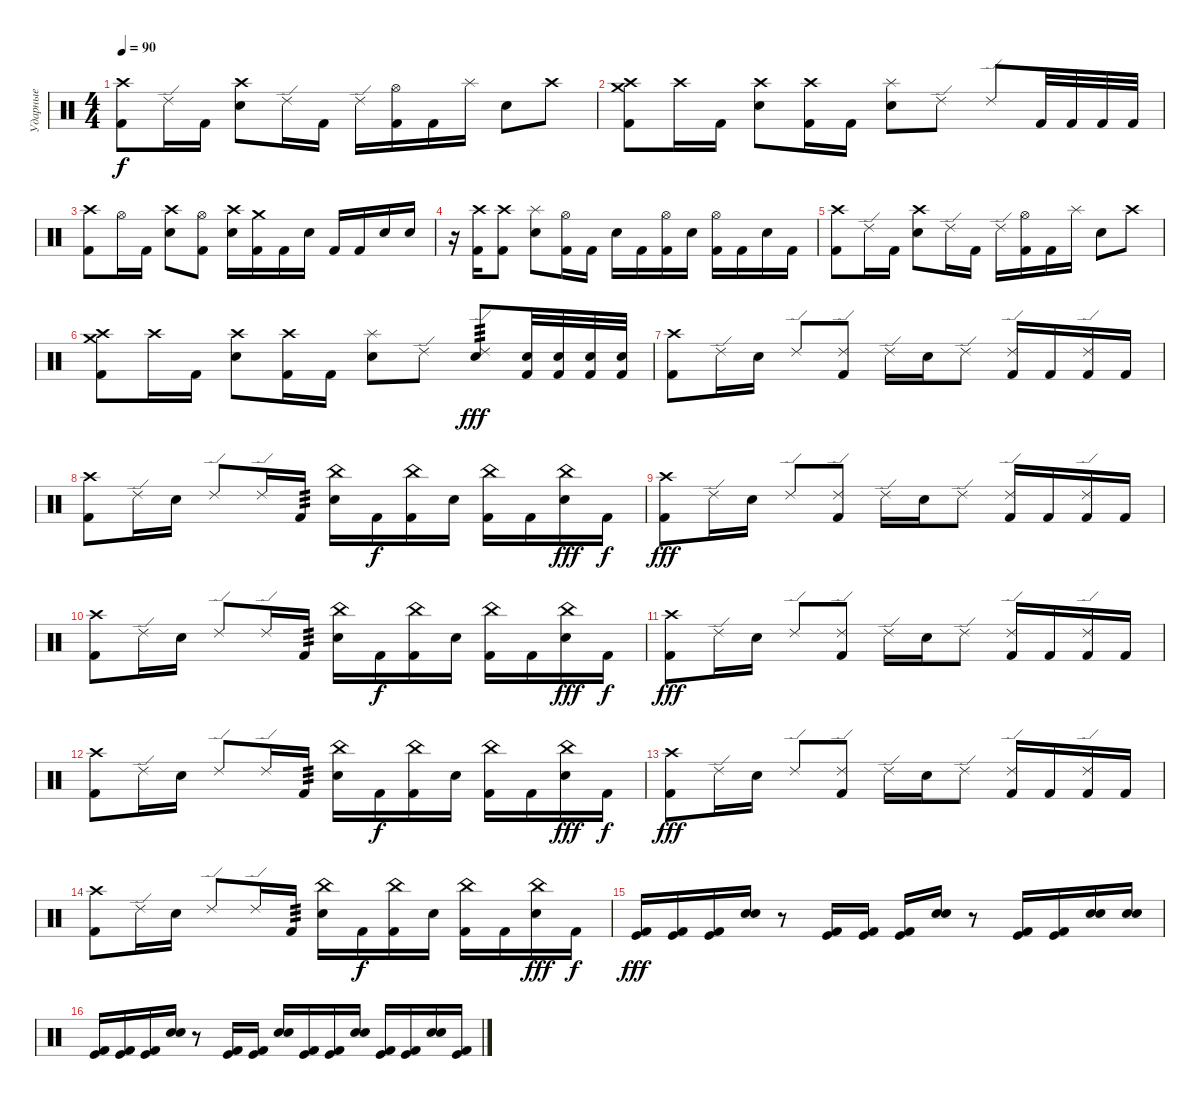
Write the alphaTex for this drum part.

\track ("Ударные" "Ударные") {instrument percussion}
\staff {score}
\articulation defaults
\ts (4 4)
\tempo 90
\clef neutral
\ks c
("Kick (hit) 2" "Crash high (hit)").8{dy f} "Ride (edge) 2".16 "Kick (hit) 2".16 ("Electric Snare (hit)" "Crash high (hit)").8 "Ride (edge) 2".16 "Kick (hit) 2".16 "Ride (edge) 2".16 ("Kick (hit) 2" "Hi-Hat (open)").16 "Kick (hit) 2".16 "Splash (hit)".16 "Electric Snare (hit)".8 "Crash high (hit)".8 |
("Kick (hit) 2" "Crash medium (hit)" "Crash high (hit)").8 "Crash high (hit)".16 "Kick (hit) 2".16 ("Electric Snare (hit)" "Crash high (hit)").8 ("Kick (hit) 2" "Crash high (hit)").16 "Kick (hit) 2".16 ("Electric Snare (hit)" "Splash (hit)").8 "Ride (edge) 2".8 "Ride (edge) 2".8 "Kick (hit) 2".32 "Kick (hit) 2".32 "Kick (hit) 2".32 "Kick (hit) 2".32 |
("Kick (hit) 2" "Crash high (hit)").8 "Hi-Hat (open)".16 "Kick (hit) 2".16 ("Electric Snare (hit)" "Crash high (hit)").8 ("Kick (hit) 2" "Hi-Hat (open)").8 ("Electric Snare (hit)" "Crash high (hit)").16 ("Kick (hit) 2" "Crash medium (hit)").16 "Kick (hit) 2".16 "Electric Snare (hit)".16 "Kick (hit) 2".16 "Kick (hit) 2".16 "Electric Snare (hit)".16 "Electric Snare (hit)".16 |
r.16 ("Kick (hit) 2" "Crash high (hit)").16 ("Kick (hit) 2" "Crash high (hit)").8 ("Electric Snare (hit)" "Splash (hit)").8 ("Kick (hit) 2" "Hi-Hat (open)").16 "Kick (hit) 2".16 "Electric Snare (hit)".16 "Kick (hit) 2".16 ("Kick (hit) 2" "Hi-Hat (open)").16 "Electric Snare (hit)".16 ("Kick (hit) 2" "Hi-Hat (open)").16 "Kick (hit) 2".16 "Electric Snare (hit)".16 "Kick (hit) 2".16 |
("Kick (hit) 2" "Crash high (hit)").8 "Ride (edge) 2".16 "Kick (hit) 2".16 ("Electric Snare (hit)" "Crash high (hit)").8 "Ride (edge) 2".16 "Kick (hit) 2".16 "Ride (edge) 2".16 ("Kick (hit) 2" "Hi-Hat (open)").16 "Kick (hit) 2".16 "Splash (hit)".16 "Electric Snare (hit)".8 "Crash high (hit)".8 |
("Kick (hit) 2" "Crash medium (hit)" "Crash high (hit)").8 "Crash high (hit)".16 "Kick (hit) 2".16 ("Electric Snare (hit)" "Crash high (hit)").8 ("Kick (hit) 2" "Crash high (hit)").16 "Kick (hit) 2".16 ("Electric Snare (hit)" "Splash (hit)").8 "Ride (edge) 2".8 ("Electric Snare (hit)" "Ride (edge) 2").8{tp 3 dy fff} ("Kick (hit) 2" "Electric Snare (hit)").32 ("Kick (hit) 2" "Electric Snare (hit)").32 ("Kick (hit) 2" "Electric Snare (hit)").32 ("Kick (hit) 2" "Electric Snare (hit)").32 |
("Kick (hit) 2" "Crash high (hit)").8 "Ride (edge) 2".16 "Electric Snare (hit)".16 "Ride (edge) 2".8 ("Kick (hit) 2" "Ride (edge) 2").8 "Ride (edge) 2".16 "Electric Snare (hit)".16 "Ride (edge) 2".8 ("Kick (hit) 2" "Ride (edge) 2").16 "Kick (hit) 2".16 ("Kick (hit) 2" "Ride (edge) 2").16 "Kick (hit) 2".16 |
("Kick (hit) 2" "Crash high (hit)").8 "Ride (edge) 2".16 "Electric Snare (hit)".16 "Ride (edge) 2".8 "Ride (edge) 2".16 "Kick (hit) 2".16{tp 3} ("Electric Snare (hit)" "China (hit)").16 "Kick (hit) 2".16{dy f} ("Kick (hit) 2" "China (hit)").16 "Electric Snare (hit)".16 ("Kick (hit) 2" "China (hit)").16 "Kick (hit) 2".16 ("Electric Snare (hit)" "China (hit)").16{dy fff} "Kick (hit) 2".16{dy f} |
("Kick (hit) 2" "Crash high (hit)").8{dy fff} "Ride (edge) 2".16 "Electric Snare (hit)".16 "Ride (edge) 2".8 ("Kick (hit) 2" "Ride (edge) 2").8 "Ride (edge) 2".16 "Electric Snare (hit)".16 "Ride (edge) 2".8 ("Kick (hit) 2" "Ride (edge) 2").16 "Kick (hit) 2".16 ("Kick (hit) 2" "Ride (edge) 2").16 "Kick (hit) 2".16 |
("Kick (hit) 2" "Crash high (hit)").8 "Ride (edge) 2".16 "Electric Snare (hit)".16 "Ride (edge) 2".8 "Ride (edge) 2".16 "Kick (hit) 2".16{tp 3} ("Electric Snare (hit)" "China (hit)").16 "Kick (hit) 2".16{dy f} ("Kick (hit) 2" "China (hit)").16 "Electric Snare (hit)".16 ("Kick (hit) 2" "China (hit)").16 "Kick (hit) 2".16 ("Electric Snare (hit)" "China (hit)").16{dy fff} "Kick (hit) 2".16{dy f} |
("Kick (hit) 2" "Crash high (hit)").8{dy fff} "Ride (edge) 2".16 "Electric Snare (hit)".16 "Ride (edge) 2".8 ("Kick (hit) 2" "Ride (edge) 2").8 "Ride (edge) 2".16 "Electric Snare (hit)".16 "Ride (edge) 2".8 ("Kick (hit) 2" "Ride (edge) 2").16 "Kick (hit) 2".16 ("Kick (hit) 2" "Ride (edge) 2").16 "Kick (hit) 2".16 |
("Kick (hit) 2" "Crash high (hit)").8 "Ride (edge) 2".16 "Electric Snare (hit)".16 "Ride (edge) 2".8 "Ride (edge) 2".16 "Kick (hit) 2".16{tp 3} ("Electric Snare (hit)" "China (hit)").16 "Kick (hit) 2".16{dy f} ("Kick (hit) 2" "China (hit)").16 "Electric Snare (hit)".16 ("Kick (hit) 2" "China (hit)").16 "Kick (hit) 2".16 ("Electric Snare (hit)" "China (hit)").16{dy fff} "Kick (hit) 2".16{dy f} |
("Kick (hit) 2" "Crash high (hit)").8{dy fff} "Ride (edge) 2".16 "Electric Snare (hit)".16 "Ride (edge) 2".8 ("Kick (hit) 2" "Ride (edge) 2").8 "Ride (edge) 2".16 "Electric Snare (hit)".16 "Ride (edge) 2".8 ("Kick (hit) 2" "Ride (edge) 2").16 "Kick (hit) 2".16 ("Kick (hit) 2" "Ride (edge) 2").16 "Kick (hit) 2".16 |
("Kick (hit) 2" "Crash high (hit)").8 "Ride (edge) 2".16 "Electric Snare (hit)".16 "Ride (edge) 2".8 "Ride (edge) 2".16 "Kick (hit) 2".16{tp 3} ("Electric Snare (hit)" "China (hit)").16 "Kick (hit) 2".16{dy f} ("Kick (hit) 2" "China (hit)").16 "Electric Snare (hit)".16 ("Kick (hit) 2" "China (hit)").16 "Kick (hit) 2".16 ("Electric Snare (hit)" "China (hit)").16{dy fff} "Kick (hit) 2".16{dy f} |
("Kick (hit) 2" "Kick (hit)").16{dy fff} ("Kick (hit) 2" "Kick (hit)").16 ("Kick (hit) 2" "Kick (hit)").16 ("Electric Snare (hit)" "Snare (hit) 2").16 r.8 ("Kick (hit) 2" "Kick (hit)").16 ("Kick (hit) 2" "Kick (hit)").16 ("Kick (hit) 2" "Kick (hit)").16 ("Electric Snare (hit)" "Snare (hit) 2").16 r.8 ("Kick (hit) 2" "Kick (hit)").16 ("Kick (hit) 2" "Kick (hit)").16 ("Electric Snare (hit)" "Snare (hit) 2").16 ("Electric Snare (hit)" "Snare (hit) 2").16 |
("Kick (hit) 2" "Kick (hit)").16 ("Kick (hit) 2" "Kick (hit)").16 ("Kick (hit) 2" "Kick (hit)").16 ("Electric Snare (hit)" "Snare (hit) 2").16 r.8 ("Kick (hit) 2" "Kick (hit)").16 ("Kick (hit) 2" "Kick (hit)").16 ("Electric Snare (hit)" "Snare (hit) 2").16 ("Kick (hit) 2" "Kick (hit)").16 ("Kick (hit) 2" "Kick (hit)").16 ("Electric Snare (hit)" "Snare (hit) 2").16 ("Kick (hit) 2" "Kick (hit)").16 ("Kick (hit) 2" "Kick (hit)").16 ("Electric Snare (hit)" "Snare (hit) 2").16 ("Kick (hit) 2" "Kick (hit)").16
